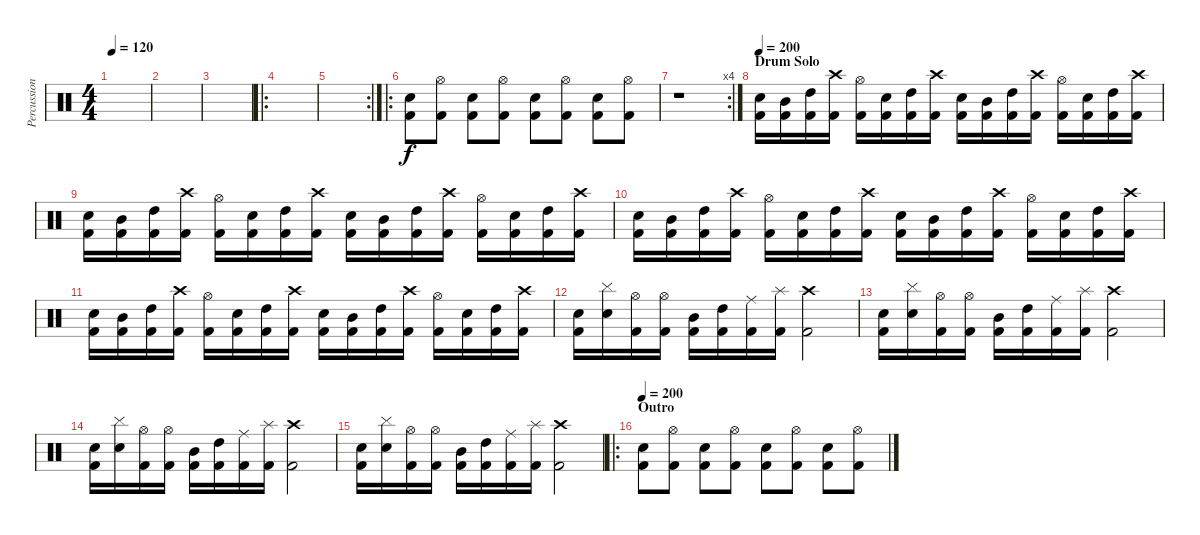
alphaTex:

\track ("Percussion" "Percussion") {instrument percussion}
\staff {score}
\articulation defaults
\ts (4 4)
\tempo 120
\clef neutral
\ks c
|
|
|
\ro
|
\rc 2
|
\ro
("Electric Snare (hit)" "Kick (hit) 2").8 ("Hi-Hat (open)" "Kick (hit) 2").8 ("Electric Snare (hit)" "Kick (hit) 2").8 ("Hi-Hat (open)" "Kick (hit) 2").8 ("Electric Snare (hit)" "Kick (hit) 2").8 ("Hi-Hat (open)" "Kick (hit) 2").8 ("Electric Snare (hit)" "Kick (hit) 2").8 ("Hi-Hat (open)" "Kick (hit) 2").8 |
\rc 4
r.1 |
\section ("" "Drum Solo")
\tempo 200
("Electric Snare (hit)" "Kick (hit) 2").16 ("Mid Tom (hit)" "Kick (hit) 2").16 ("High Tom (hit)" "Kick (hit) 2").16 ("Crash high (hit)" "Kick (hit) 2").16 ("Hi-Hat (open)" "Kick (hit) 2").16 ("Electric Snare (hit)" "Kick (hit) 2").16 ("High Tom (hit)" "Kick (hit) 2").16 ("Crash high (hit)" "Kick (hit) 2").16 ("Electric Snare (hit)" "Kick (hit) 2").16 ("Mid Tom (hit)" "Kick (hit) 2").16 ("High Tom (hit)" "Kick (hit) 2").16 ("Crash high (hit)" "Kick (hit) 2").16 ("Hi-Hat (open)" "Kick (hit) 2").16 ("Electric Snare (hit)" "Kick (hit) 2").16 ("High Tom (hit)" "Kick (hit) 2").16 ("Crash high (hit)" "Kick (hit) 2").16 |
("Electric Snare (hit)" "Kick (hit) 2").16 ("Mid Tom (hit)" "Kick (hit) 2").16 ("High Tom (hit)" "Kick (hit) 2").16 ("Crash high (hit)" "Kick (hit) 2").16 ("Hi-Hat (open)" "Kick (hit) 2").16 ("Electric Snare (hit)" "Kick (hit) 2").16 ("High Tom (hit)" "Kick (hit) 2").16 ("Crash high (hit)" "Kick (hit) 2").16 ("Electric Snare (hit)" "Kick (hit) 2").16 ("Mid Tom (hit)" "Kick (hit) 2").16 ("High Tom (hit)" "Kick (hit) 2").16 ("Crash high (hit)" "Kick (hit) 2").16 ("Hi-Hat (open)" "Kick (hit) 2").16 ("Electric Snare (hit)" "Kick (hit) 2").16 ("High Tom (hit)" "Kick (hit) 2").16 ("Crash high (hit)" "Kick (hit) 2").16 |
("Electric Snare (hit)" "Kick (hit) 2").16 ("Mid Tom (hit)" "Kick (hit) 2").16 ("High Tom (hit)" "Kick (hit) 2").16 ("Crash high (hit)" "Kick (hit) 2").16 ("Hi-Hat (open)" "Kick (hit) 2").16 ("Electric Snare (hit)" "Kick (hit) 2").16 ("High Tom (hit)" "Kick (hit) 2").16 ("Crash high (hit)" "Kick (hit) 2").16 ("Electric Snare (hit)" "Kick (hit) 2").16 ("Mid Tom (hit)" "Kick (hit) 2").16 ("High Tom (hit)" "Kick (hit) 2").16 ("Crash high (hit)" "Kick (hit) 2").16 ("Hi-Hat (open)" "Kick (hit) 2").16 ("Electric Snare (hit)" "Kick (hit) 2").16 ("High Tom (hit)" "Kick (hit) 2").16 ("Crash high (hit)" "Kick (hit) 2").16 |
("Electric Snare (hit)" "Kick (hit) 2").16 ("Mid Tom (hit)" "Kick (hit) 2").16 ("High Tom (hit)" "Kick (hit) 2").16 ("Crash high (hit)" "Kick (hit) 2").16 ("Hi-Hat (open)" "Kick (hit) 2").16 ("Electric Snare (hit)" "Kick (hit) 2").16 ("High Tom (hit)" "Kick (hit) 2").16 ("Crash high (hit)" "Kick (hit) 2").16 ("Electric Snare (hit)" "Kick (hit) 2").16 ("Mid Tom (hit)" "Kick (hit) 2").16 ("High Tom (hit)" "Kick (hit) 2").16 ("Crash high (hit)" "Kick (hit) 2").16 ("Hi-Hat (open)" "Kick (hit) 2").16 ("Electric Snare (hit)" "Kick (hit) 2").16 ("High Tom (hit)" "Kick (hit) 2").16 ("Crash high (hit)" "Kick (hit) 2").16 |
("Electric Snare (hit)" "Kick (hit) 2").16 ("Electric Snare (hit)" "Cymbal (hit)").16 ("Hi-Hat (open)" "Kick (hit) 2").16 ("Hi-Hat (open)" "Kick (hit) 2").16 ("Mid Tom (hit)" "Kick (hit) 2").16 ("High Tom (hit)" "Kick (hit) 2").16 ("Ride (middle)" "Kick (hit) 2").16 ("Splash (hit)" "Kick (hit) 2").16 ("Crash high (hit)" "Kick (hit) 2").2 |
("Electric Snare (hit)" "Kick (hit) 2").16 ("Electric Snare (hit)" "Cymbal (hit)").16 ("Hi-Hat (open)" "Kick (hit) 2").16 ("Hi-Hat (open)" "Kick (hit) 2").16 ("Mid Tom (hit)" "Kick (hit) 2").16 ("High Tom (hit)" "Kick (hit) 2").16 ("Ride (middle)" "Kick (hit) 2").16 ("Splash (hit)" "Kick (hit) 2").16 ("Crash high (hit)" "Kick (hit) 2").2 |
("Electric Snare (hit)" "Kick (hit) 2").16 ("Electric Snare (hit)" "Cymbal (hit)").16 ("Hi-Hat (open)" "Kick (hit) 2").16 ("Hi-Hat (open)" "Kick (hit) 2").16 ("Mid Tom (hit)" "Kick (hit) 2").16 ("High Tom (hit)" "Kick (hit) 2").16 ("Ride (middle)" "Kick (hit) 2").16 ("Splash (hit)" "Kick (hit) 2").16 ("Crash high (hit)" "Kick (hit) 2").2 |
("Electric Snare (hit)" "Kick (hit) 2").16 ("Electric Snare (hit)" "Cymbal (hit)").16 ("Hi-Hat (open)" "Kick (hit) 2").16 ("Hi-Hat (open)" "Kick (hit) 2").16 ("Mid Tom (hit)" "Kick (hit) 2").16 ("High Tom (hit)" "Kick (hit) 2").16 ("Ride (middle)" "Kick (hit) 2").16 ("Splash (hit)" "Kick (hit) 2").16 ("Crash high (hit)" "Kick (hit) 2").2 |
\ro
\section ("" "Outro")
\tempo 200
("Electric Snare (hit)" "Kick (hit) 2").8 ("Hi-Hat (open)" "Kick (hit) 2").8 ("Electric Snare (hit)" "Kick (hit) 2").8 ("Hi-Hat (open)" "Kick (hit) 2").8 ("Electric Snare (hit)" "Kick (hit) 2").8 ("Hi-Hat (open)" "Kick (hit) 2").8 ("Electric Snare (hit)" "Kick (hit) 2").8 ("Hi-Hat (open)" "Kick (hit) 2").8
